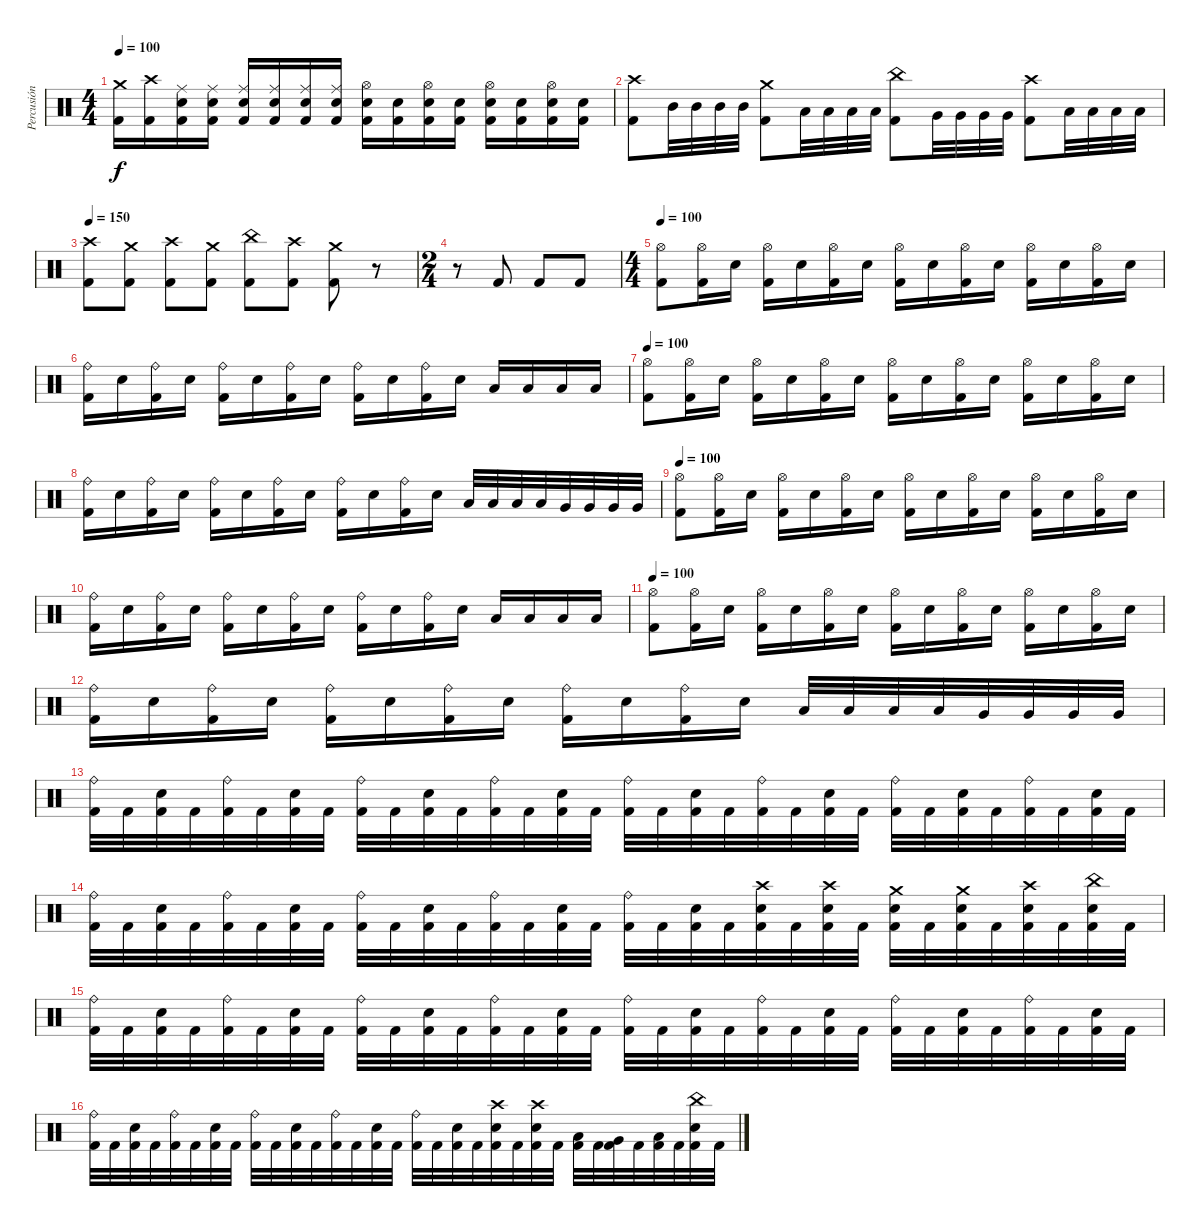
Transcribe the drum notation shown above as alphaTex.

\track ("Percusión" "Percusión") {instrument percussion}
\staff {score}
\articulation defaults
\ts (4 4)
\tempo 100
\clef neutral
\ks c
("Kick (hit) 2" "Crash medium (hit)").16{dy f} ("Kick (hit) 2" "Crash high (hit)").16 ("Ride (middle)" "Snare (hit) 2" "Kick (hit) 2").16 ("Ride (middle)" "Snare (hit) 2" "Kick (hit) 2").16 ("Ride (middle)" "Snare (hit) 2" "Kick (hit) 2").16 ("Ride (middle)" "Snare (hit) 2" "Kick (hit) 2").16 ("Snare (hit) 2" "Ride (middle)" "Kick (hit) 2").16 ("Snare (hit) 2" "Ride (middle)" "Kick (hit) 2").16 ("Snare (hit) 2" "Hi-Hat (open)" "Kick (hit) 2").16 ("Snare (hit) 2" "Kick (hit) 2").16 ("Snare (hit) 2" "Hi-Hat (open)" "Kick (hit) 2").16 ("Snare (hit) 2" "Kick (hit) 2").16 ("Snare (hit) 2" "Hi-Hat (open)" "Kick (hit) 2").16 ("Snare (hit) 2" "Kick (hit) 2").16 ("Snare (hit) 2" "Hi-Hat (open)" "Kick (hit) 2").16 ("Snare (hit) 2" "Kick (hit) 2").16 |
("Kick (hit) 2" "Crash high (hit)").8 "Mid Tom (hit)".32 "Mid Tom (hit)".32 "Mid Tom (hit)".32 "Mid Tom (hit)".32 ("Crash medium (hit)" "Kick (hit) 2").8 "Low Tom (hit)".32 "Low Tom (hit)".32 "Low Tom (hit)".32 "Low Tom (hit)".32 ("China (hit)" "Kick (hit) 2").8 "Very Low Tom (hit)".32 "Very Low Tom (hit)".32 "Very Low Tom (hit)".32 "Very Low Tom (hit)".32 ("Kick (hit) 2" "Crash high (hit)").8 "Low Floor Tom (hit)".32 "Low Floor Tom (hit)".32 "Low Floor Tom (hit)".32 "Low Floor Tom (hit)".32 |
\tempo 150
("Crash high (hit)" "Kick (hit) 2").8 ("Crash medium (hit)" "Kick (hit) 2").8 ("Crash high (hit)" "Kick (hit) 2").8 ("Crash medium (hit)" "Kick (hit) 2").8 ("China (hit)" "Kick (hit) 2").8 ("Crash high (hit)" "Kick (hit) 2").8 ("Crash medium (hit)" "Kick (hit) 2").8 r.8 |
\ts (2 4)
r.8 "Kick (hit) 2".8 "Kick (hit) 2".8 "Kick (hit) 2".8 |
\ts (4 4)
\tempo 100
("Hi-Hat (open)" "Kick (hit) 2").8 ("Hi-Hat (open)" "Kick (hit) 2").16 "Snare (hit) 2".16 ("Hi-Hat (open)" "Kick (hit) 2").16 "Snare (hit) 2".16 ("Hi-Hat (open)" "Kick (hit) 2").16 "Snare (hit) 2".16 ("Hi-Hat (open)" "Kick (hit) 2").16 "Snare (hit) 2".16 ("Hi-Hat (open)" "Kick (hit) 2").16 "Snare (hit) 2".16 ("Hi-Hat (open)" "Kick (hit) 2").16 "Snare (hit) 2".16 ("Hi-Hat (open)" "Kick (hit) 2").16 "Snare (hit) 2".16 |
("Ride (bell)" "Kick (hit) 2").16 "Snare (hit) 2".16 ("Ride (bell)" "Kick (hit) 2").16 "Snare (hit) 2".16 ("Ride (bell)" "Kick (hit) 2").16 "Snare (hit) 2".16 ("Ride (bell)" "Kick (hit) 2").16 "Snare (hit) 2".16 ("Ride (bell)" "Kick (hit) 2").16 "Snare (hit) 2".16 ("Ride (bell)" "Kick (hit) 2").16 "Snare (hit) 2".16 "Low Tom (hit)".16 "Low Tom (hit)".16 "Low Floor Tom (hit)".16 "Low Floor Tom (hit)".16 |
\tempo 100
("Hi-Hat (open)" "Kick (hit) 2").8 ("Hi-Hat (open)" "Kick (hit) 2").16 "Snare (hit) 2".16 ("Hi-Hat (open)" "Kick (hit) 2").16 "Snare (hit) 2".16 ("Hi-Hat (open)" "Kick (hit) 2").16 "Snare (hit) 2".16 ("Hi-Hat (open)" "Kick (hit) 2").16 "Snare (hit) 2".16 ("Hi-Hat (open)" "Kick (hit) 2").16 "Snare (hit) 2".16 ("Hi-Hat (open)" "Kick (hit) 2").16 "Snare (hit) 2".16 ("Hi-Hat (open)" "Kick (hit) 2").16 "Snare (hit) 2".16 |
("Ride (bell)" "Kick (hit) 2").16 "Snare (hit) 2".16 ("Ride (bell)" "Kick (hit) 2").16 "Snare (hit) 2".16 ("Ride (bell)" "Kick (hit) 2").16 "Snare (hit) 2".16 ("Ride (bell)" "Kick (hit) 2").16 "Snare (hit) 2".16 ("Ride (bell)" "Kick (hit) 2").16 "Snare (hit) 2".16 ("Ride (bell)" "Kick (hit) 2").16 "Snare (hit) 2".16 "Low Tom (hit)".32 "Low Tom (hit)".32 "Low Tom (hit)".32 "Low Tom (hit)".32 "Very Low Tom (hit)".32 "Very Low Tom (hit)".32 "Very Low Tom (hit)".32 "Very Low Tom (hit)".32 |
\tempo 100
("Hi-Hat (open)" "Kick (hit) 2").8 ("Hi-Hat (open)" "Kick (hit) 2").16 "Snare (hit) 2".16 ("Hi-Hat (open)" "Kick (hit) 2").16 "Snare (hit) 2".16 ("Hi-Hat (open)" "Kick (hit) 2").16 "Snare (hit) 2".16 ("Hi-Hat (open)" "Kick (hit) 2").16 "Snare (hit) 2".16 ("Hi-Hat (open)" "Kick (hit) 2").16 "Snare (hit) 2".16 ("Hi-Hat (open)" "Kick (hit) 2").16 "Snare (hit) 2".16 ("Hi-Hat (open)" "Kick (hit) 2").16 "Snare (hit) 2".16 |
("Ride (bell)" "Kick (hit) 2").16 "Snare (hit) 2".16 ("Ride (bell)" "Kick (hit) 2").16 "Snare (hit) 2".16 ("Ride (bell)" "Kick (hit) 2").16 "Snare (hit) 2".16 ("Ride (bell)" "Kick (hit) 2").16 "Snare (hit) 2".16 ("Ride (bell)" "Kick (hit) 2").16 "Snare (hit) 2".16 ("Ride (bell)" "Kick (hit) 2").16 "Snare (hit) 2".16 "Low Tom (hit)".16 "Low Tom (hit)".16 "Low Floor Tom (hit)".16 "Low Floor Tom (hit)".16 |
\tempo 100
("Hi-Hat (open)" "Kick (hit) 2").8 ("Hi-Hat (open)" "Kick (hit) 2").16 "Snare (hit) 2".16 ("Hi-Hat (open)" "Kick (hit) 2").16 "Snare (hit) 2".16 ("Hi-Hat (open)" "Kick (hit) 2").16 "Snare (hit) 2".16 ("Hi-Hat (open)" "Kick (hit) 2").16 "Snare (hit) 2".16 ("Hi-Hat (open)" "Kick (hit) 2").16 "Snare (hit) 2".16 ("Hi-Hat (open)" "Kick (hit) 2").16 "Snare (hit) 2".16 ("Hi-Hat (open)" "Kick (hit) 2").16 "Snare (hit) 2".16 |
("Ride (bell)" "Kick (hit) 2").16 "Snare (hit) 2".16 ("Ride (bell)" "Kick (hit) 2").16 "Snare (hit) 2".16 ("Ride (bell)" "Kick (hit) 2").16 "Snare (hit) 2".16 ("Ride (bell)" "Kick (hit) 2").16 "Snare (hit) 2".16 ("Ride (bell)" "Kick (hit) 2").16 "Snare (hit) 2".16 ("Ride (bell)" "Kick (hit) 2").16 "Snare (hit) 2".16 "Low Tom (hit)".32 "Low Tom (hit)".32 "Low Tom (hit)".32 "Low Tom (hit)".32 "Very Low Tom (hit)".32 "Very Low Tom (hit)".32 "Very Low Tom (hit)".32 "Very Low Tom (hit)".32 |
("Kick (hit) 2" "Ride (bell)").32 "Kick (hit) 2".32 ("Kick (hit) 2" "Snare (hit) 2").32 "Kick (hit) 2".32 ("Kick (hit) 2" "Ride (bell)").32 "Kick (hit) 2".32 ("Kick (hit) 2" "Snare (hit) 2").32 "Kick (hit) 2".32 ("Kick (hit) 2" "Ride (bell)").32 "Kick (hit) 2".32 ("Kick (hit) 2" "Snare (hit) 2").32 "Kick (hit) 2".32 ("Kick (hit) 2" "Ride (bell)").32 "Kick (hit) 2".32 ("Kick (hit) 2" "Snare (hit) 2").32 "Kick (hit) 2".32 ("Kick (hit) 2" "Ride (bell)").32 "Kick (hit) 2".32 ("Kick (hit) 2" "Snare (hit) 2").32 "Kick (hit) 2".32 ("Kick (hit) 2" "Ride (bell)").32 "Kick (hit) 2".32 ("Kick (hit) 2" "Snare (hit) 2").32 "Kick (hit) 2".32 ("Kick (hit) 2" "Ride (bell)").32 "Kick (hit) 2".32 ("Kick (hit) 2" "Snare (hit) 2").32 "Kick (hit) 2".32 ("Kick (hit) 2" "Ride (bell)").32 "Kick (hit) 2".32 ("Kick (hit) 2" "Snare (hit) 2").32 "Kick (hit) 2".32 |
("Kick (hit) 2" "Ride (bell)").32 "Kick (hit) 2".32 ("Kick (hit) 2" "Snare (hit) 2").32 "Kick (hit) 2".32 ("Kick (hit) 2" "Ride (bell)").32 "Kick (hit) 2".32 ("Kick (hit) 2" "Snare (hit) 2").32 "Kick (hit) 2".32 ("Kick (hit) 2" "Ride (bell)").32 "Kick (hit) 2".32 ("Kick (hit) 2" "Snare (hit) 2").32 "Kick (hit) 2".32 ("Kick (hit) 2" "Ride (bell)").32 "Kick (hit) 2".32 ("Kick (hit) 2" "Snare (hit) 2").32 "Kick (hit) 2".32 ("Kick (hit) 2" "Ride (bell)").32 "Kick (hit) 2".32 ("Kick (hit) 2" "Snare (hit) 2").32 "Kick (hit) 2".32 ("Kick (hit) 2" "Crash high (hit)" "Snare (hit) 2").32 "Kick (hit) 2".32 ("Kick (hit) 2" "Crash high (hit)" "Snare (hit) 2").32 "Kick (hit) 2".32 ("Kick (hit) 2" "Crash medium (hit)" "Snare (hit) 2").32 "Kick (hit) 2".32 ("Kick (hit) 2" "Crash medium (hit)" "Snare (hit) 2").32 "Kick (hit) 2".32 ("Kick (hit) 2" "Crash high (hit)" "Snare (hit) 2").32 "Kick (hit) 2".32 ("Kick (hit) 2" "China (hit)" "Snare (hit) 2").32 "Kick (hit) 2".32 |
("Kick (hit) 2" "Ride (bell)").32 "Kick (hit) 2".32 ("Kick (hit) 2" "Snare (hit) 2").32 "Kick (hit) 2".32 ("Kick (hit) 2" "Ride (bell)").32 "Kick (hit) 2".32 ("Kick (hit) 2" "Snare (hit) 2").32 "Kick (hit) 2".32 ("Kick (hit) 2" "Ride (bell)").32 "Kick (hit) 2".32 ("Kick (hit) 2" "Snare (hit) 2").32 "Kick (hit) 2".32 ("Kick (hit) 2" "Ride (bell)").32 "Kick (hit) 2".32 ("Kick (hit) 2" "Snare (hit) 2").32 "Kick (hit) 2".32 ("Kick (hit) 2" "Ride (bell)").32 "Kick (hit) 2".32 ("Kick (hit) 2" "Snare (hit) 2").32 "Kick (hit) 2".32 ("Kick (hit) 2" "Ride (bell)").32 "Kick (hit) 2".32 ("Kick (hit) 2" "Snare (hit) 2").32 "Kick (hit) 2".32 ("Kick (hit) 2" "Ride (bell)").32 "Kick (hit) 2".32 ("Kick (hit) 2" "Snare (hit) 2").32 "Kick (hit) 2".32 ("Kick (hit) 2" "Ride (bell)").32 "Kick (hit) 2".32 ("Kick (hit) 2" "Snare (hit) 2").32 "Kick (hit) 2".32 |
("Kick (hit) 2" "Ride (bell)").32 "Kick (hit) 2".32 ("Kick (hit) 2" "Snare (hit) 2").32 "Kick (hit) 2".32 ("Kick (hit) 2" "Ride (bell)").32 "Kick (hit) 2".32 ("Kick (hit) 2" "Snare (hit) 2").32 "Kick (hit) 2".32 ("Kick (hit) 2" "Ride (bell)").32 "Kick (hit) 2".32 ("Kick (hit) 2" "Snare (hit) 2").32 "Kick (hit) 2".32 ("Kick (hit) 2" "Ride (bell)").32 "Kick (hit) 2".32 ("Kick (hit) 2" "Snare (hit) 2").32 "Kick (hit) 2".32 ("Kick (hit) 2" "Ride (bell)").32 "Kick (hit) 2".32 ("Kick (hit) 2" "Snare (hit) 2").32 "Kick (hit) 2".32 ("Kick (hit) 2" "Crash high (hit)" "Snare (hit) 2").32 "Kick (hit) 2".32 ("Kick (hit) 2" "Crash high (hit)" "Snare (hit) 2").32 "Kick (hit) 2".32 ("Kick (hit) 2" "Low Tom (hit)").32 "Kick (hit) 2".32 ("Kick (hit) 2" "Very Low Tom (hit)").32 "Kick (hit) 2".32 ("Kick (hit) 2" "Low Floor Tom (hit)").32 "Kick (hit) 2".32 ("Kick (hit) 2" "China (hit)" "Snare (hit) 2").32 "Kick (hit) 2".32
